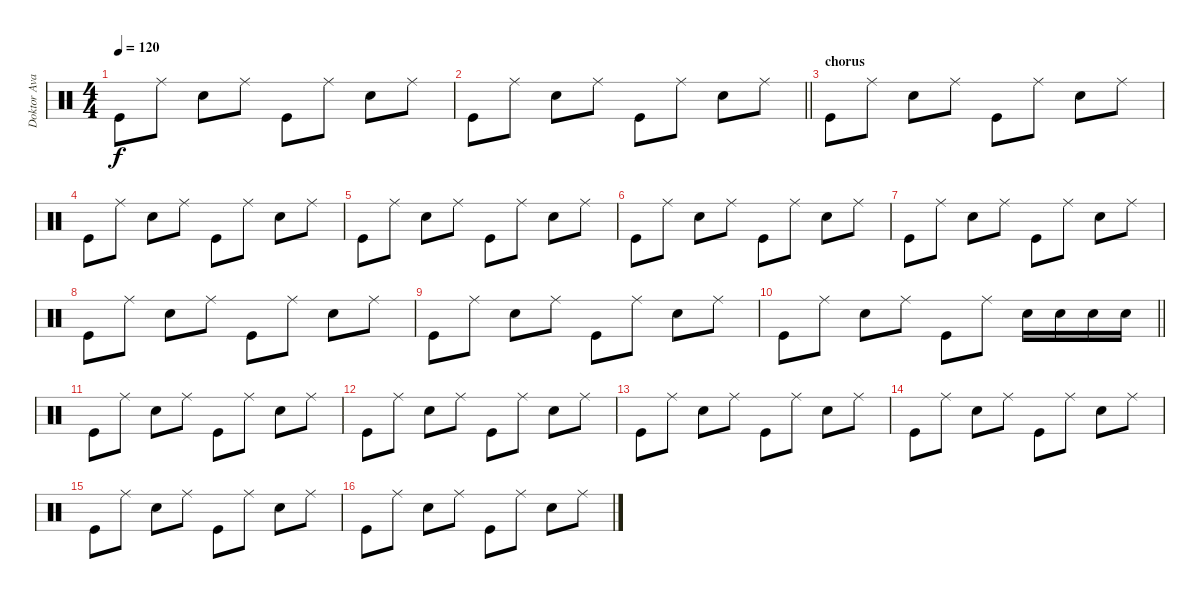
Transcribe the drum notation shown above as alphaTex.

\track ("Doktor Avalanche" "Doktor Ava") {instrument percussion}
\staff {score}
\articulation defaults
\ts (4 4)
\tempo 120
\clef neutral
\ks c "Kick (hit)".8{dy f} "Ride (middle)".8 "Snare (hit) 2".8 "Ride (middle)".8 "Kick (hit)".8 "Ride (middle)".8 "Snare (hit) 2".8 "Ride (middle)".8
|
\barLineRight lightlight "Kick (hit)".8 "Ride (middle)".8 "Snare (hit) 2".8 "Ride (middle)".8 "Kick (hit)".8 "Ride (middle)".8 "Snare (hit) 2".8 "Ride (middle)".8
|
\section ("" "chorus")
"Kick (hit)".8 "Ride (middle)".8 "Snare (hit) 2".8 "Ride (middle)".8 "Kick (hit)".8 "Ride (middle)".8 "Snare (hit) 2".8 "Ride (middle)".8 |
"Kick (hit)".8 "Ride (middle)".8 "Snare (hit) 2".8 "Ride (middle)".8 "Kick (hit)".8 "Ride (middle)".8 "Snare (hit) 2".8 "Ride (middle)".8 |
"Kick (hit)".8 "Ride (middle)".8 "Snare (hit) 2".8 "Ride (middle)".8 "Kick (hit)".8 "Ride (middle)".8 "Snare (hit) 2".8 "Ride (middle)".8 |
"Kick (hit)".8 "Ride (middle)".8 "Snare (hit) 2".8 "Ride (middle)".8 "Kick (hit)".8 "Ride (middle)".8 "Snare (hit) 2".8 "Ride (middle)".8 |
"Kick (hit)".8 "Ride (middle)".8 "Snare (hit) 2".8 "Ride (middle)".8 "Kick (hit)".8 "Ride (middle)".8 "Snare (hit) 2".8 "Ride (middle)".8 |
"Kick (hit)".8 "Ride (middle)".8 "Snare (hit) 2".8 "Ride (middle)".8 "Kick (hit)".8 "Ride (middle)".8 "Snare (hit) 2".8 "Ride (middle)".8 |
"Kick (hit)".8 "Ride (middle)".8 "Snare (hit) 2".8 "Ride (middle)".8 "Kick (hit)".8 "Ride (middle)".8 "Snare (hit) 2".8 "Ride (middle)".8 |
\barLineRight lightlight "Kick (hit)".8 "Ride (middle)".8 "Snare (hit) 2".8 "Ride (middle)".8 "Kick (hit)".8 "Ride (middle)".8 "Snare (hit) 2".16 "Snare (hit) 2".16 "Snare (hit) 2".16 "Snare (hit) 2".16
|
"Kick (hit)".8 "Ride (middle)".8 "Snare (hit) 2".8 "Ride (middle)".8 "Kick (hit)".8 "Ride (middle)".8 "Snare (hit) 2".8 "Ride (middle)".8 |
"Kick (hit)".8 "Ride (middle)".8 "Snare (hit) 2".8 "Ride (middle)".8 "Kick (hit)".8 "Ride (middle)".8 "Snare (hit) 2".8 "Ride (middle)".8 |
"Kick (hit)".8 "Ride (middle)".8 "Snare (hit) 2".8 "Ride (middle)".8 "Kick (hit)".8 "Ride (middle)".8 "Snare (hit) 2".8 "Ride (middle)".8 |
"Kick (hit)".8 "Ride (middle)".8 "Snare (hit) 2".8 "Ride (middle)".8 "Kick (hit)".8 "Ride (middle)".8 "Snare (hit) 2".8 "Ride (middle)".8 |
"Kick (hit)".8 "Ride (middle)".8 "Snare (hit) 2".8 "Ride (middle)".8 "Kick (hit)".8 "Ride (middle)".8 "Snare (hit) 2".8 "Ride (middle)".8 |
"Kick (hit)".8 "Ride (middle)".8 "Snare (hit) 2".8 "Ride (middle)".8 "Kick (hit)".8 "Ride (middle)".8 "Snare (hit) 2".8 "Ride (middle)".8
